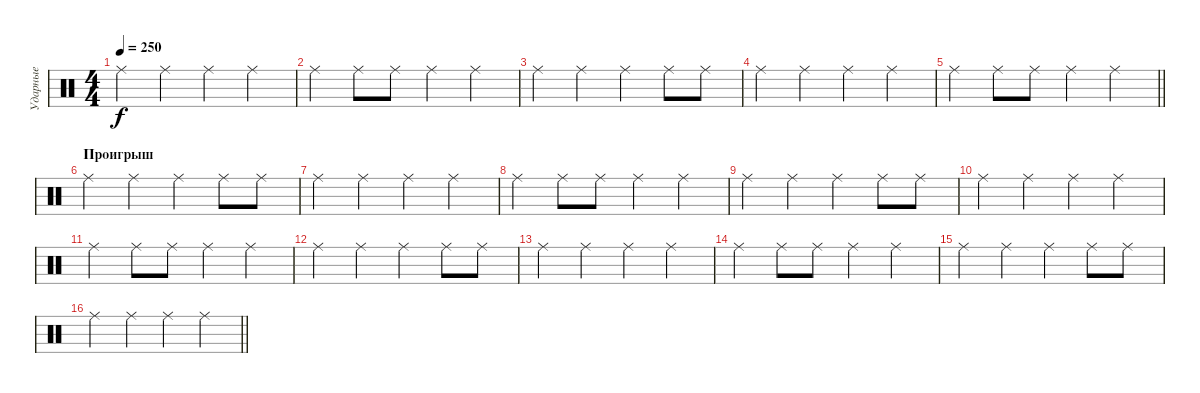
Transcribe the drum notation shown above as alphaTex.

\track ("Ударные" "Ударные") {instrument percussion}
\staff {score}
\articulation defaults
\ts (4 4)
\tempo 250
\clef neutral
\ks c "Ride (middle)".4{dy f} "Ride (middle)".4 "Ride (middle)".4 "Ride (middle)".4
|
"Ride (middle)".4 "Ride (middle)".8 "Ride (middle)".8 "Ride (middle)".4 "Ride (middle)".4 |
"Ride (middle)".4 "Ride (middle)".4 "Ride (middle)".4 "Ride (middle)".8 "Ride (middle)".8 |
"Ride (middle)".4 "Ride (middle)".4 "Ride (middle)".4 "Ride (middle)".4 |
\barLineRight lightlight "Ride (middle)".4 "Ride (middle)".8 "Ride (middle)".8 "Ride (middle)".4 "Ride (middle)".4
|
\section ("" "Проигрыш")
"Ride (middle)".4 "Ride (middle)".4 "Ride (middle)".4 "Ride (middle)".8 "Ride (middle)".8 |
"Ride (middle)".4 "Ride (middle)".4 "Ride (middle)".4 "Ride (middle)".4 |
"Ride (middle)".4 "Ride (middle)".8 "Ride (middle)".8 "Ride (middle)".4 "Ride (middle)".4 |
"Ride (middle)".4 "Ride (middle)".4 "Ride (middle)".4 "Ride (middle)".8 "Ride (middle)".8 |
"Ride (middle)".4 "Ride (middle)".4 "Ride (middle)".4 "Ride (middle)".4 |
"Ride (middle)".4 "Ride (middle)".8 "Ride (middle)".8 "Ride (middle)".4 "Ride (middle)".4 |
"Ride (middle)".4 "Ride (middle)".4 "Ride (middle)".4 "Ride (middle)".8 "Ride (middle)".8 |
"Ride (middle)".4 "Ride (middle)".4 "Ride (middle)".4 "Ride (middle)".4 |
"Ride (middle)".4 "Ride (middle)".8 "Ride (middle)".8 "Ride (middle)".4 "Ride (middle)".4 |
"Ride (middle)".4 "Ride (middle)".4 "Ride (middle)".4 "Ride (middle)".8 "Ride (middle)".8 |
\barLineRight lightlight "Ride (middle)".4 "Ride (middle)".4 "Ride (middle)".4 "Ride (middle)".4
